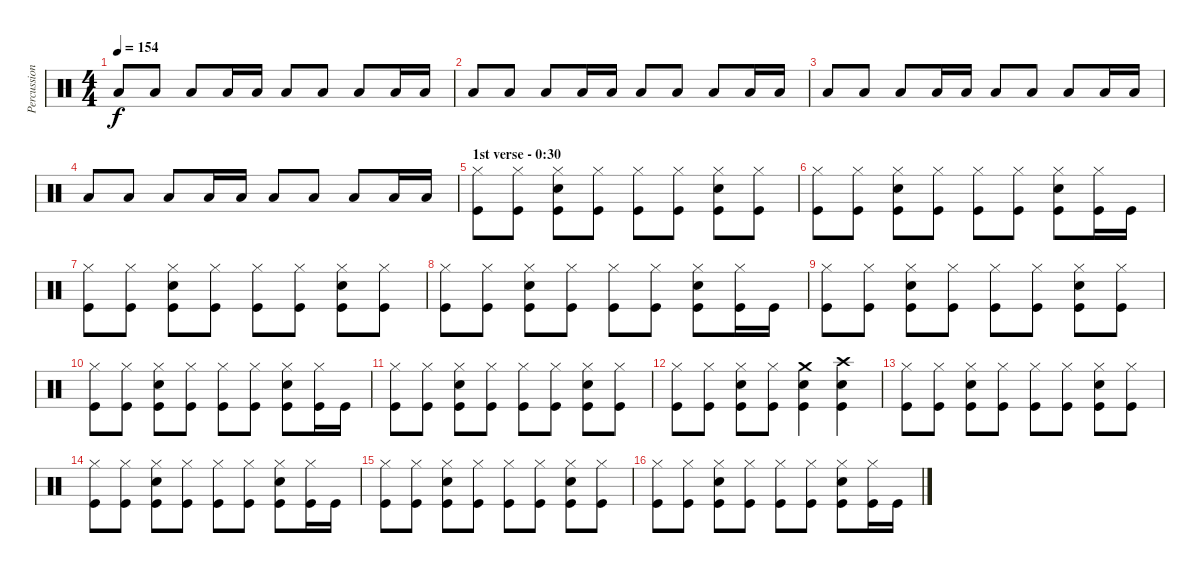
\track ("Percussioni" "Percussion") {instrument percussion}
\staff {score}
\articulation defaults
\ts (4 4)
\tempo 154
\clef neutral
\ks c "Low Floor Tom (hit)".8{dy f} "Low Floor Tom (hit)".8 "Low Floor Tom (hit)".8 "Low Floor Tom (hit)".16 "Low Floor Tom (hit)".16 "Low Floor Tom (hit)".8 "Low Floor Tom (hit)".8 "Low Floor Tom (hit)".8 "Low Floor Tom (hit)".16 "Low Floor Tom (hit)".16
|
"Low Floor Tom (hit)".8 "Low Floor Tom (hit)".8 "Low Floor Tom (hit)".8 "Low Floor Tom (hit)".16 "Low Floor Tom (hit)".16 "Low Floor Tom (hit)".8 "Low Floor Tom (hit)".8 "Low Floor Tom (hit)".8 "Low Floor Tom (hit)".16 "Low Floor Tom (hit)".16 |
"Low Floor Tom (hit)".8 "Low Floor Tom (hit)".8 "Low Floor Tom (hit)".8 "Low Floor Tom (hit)".16 "Low Floor Tom (hit)".16 "Low Floor Tom (hit)".8 "Low Floor Tom (hit)".8 "Low Floor Tom (hit)".8 "Low Floor Tom (hit)".16 "Low Floor Tom (hit)".16 |
"Low Floor Tom (hit)".8 "Low Floor Tom (hit)".8 "Low Floor Tom (hit)".8 "Low Floor Tom (hit)".16 "Low Floor Tom (hit)".16 "Low Floor Tom (hit)".8 "Low Floor Tom (hit)".8 "Low Floor Tom (hit)".8 "Low Floor Tom (hit)".16 "Low Floor Tom (hit)".16 |
\section ("" "1st verse - 0:30")
("Hi-Hat (closed)" "Kick (hit)").8 ("Hi-Hat (closed)" "Kick (hit)").8 ("Hi-Hat (closed)" "Electric Snare (hit)" "Kick (hit)").8 ("Hi-Hat (closed)" "Kick (hit)").8 ("Hi-Hat (closed)" "Kick (hit)").8 ("Hi-Hat (closed)" "Kick (hit)").8 ("Hi-Hat (closed)" "Electric Snare (hit)" "Kick (hit)").8 ("Hi-Hat (closed)" "Kick (hit)").8 |
("Hi-Hat (closed)" "Kick (hit)").8 ("Hi-Hat (closed)" "Kick (hit)").8 ("Hi-Hat (closed)" "Electric Snare (hit)" "Kick (hit)").8 ("Hi-Hat (closed)" "Kick (hit)").8 ("Hi-Hat (closed)" "Kick (hit)").8 ("Hi-Hat (closed)" "Kick (hit)").8 ("Hi-Hat (closed)" "Electric Snare (hit)" "Kick (hit)").8 ("Hi-Hat (closed)" "Kick (hit)").16 "Kick (hit)".16 |
("Hi-Hat (closed)" "Kick (hit)").8 ("Hi-Hat (closed)" "Kick (hit)").8 ("Hi-Hat (closed)" "Electric Snare (hit)" "Kick (hit)").8 ("Hi-Hat (closed)" "Kick (hit)").8 ("Hi-Hat (closed)" "Kick (hit)").8 ("Hi-Hat (closed)" "Kick (hit)").8 ("Hi-Hat (closed)" "Electric Snare (hit)" "Kick (hit)").8 ("Hi-Hat (closed)" "Kick (hit)").8 |
("Hi-Hat (closed)" "Kick (hit)").8 ("Hi-Hat (closed)" "Kick (hit)").8 ("Hi-Hat (closed)" "Electric Snare (hit)" "Kick (hit)").8 ("Hi-Hat (closed)" "Kick (hit)").8 ("Hi-Hat (closed)" "Kick (hit)").8 ("Hi-Hat (closed)" "Kick (hit)").8 ("Hi-Hat (closed)" "Electric Snare (hit)" "Kick (hit)").8 ("Hi-Hat (closed)" "Kick (hit)").16 "Kick (hit)".16 |
("Hi-Hat (closed)" "Kick (hit)").8 ("Hi-Hat (closed)" "Kick (hit)").8 ("Hi-Hat (closed)" "Electric Snare (hit)" "Kick (hit)").8 ("Hi-Hat (closed)" "Kick (hit)").8 ("Hi-Hat (closed)" "Kick (hit)").8 ("Hi-Hat (closed)" "Kick (hit)").8 ("Hi-Hat (closed)" "Electric Snare (hit)" "Kick (hit)").8 ("Hi-Hat (closed)" "Kick (hit)").8 |
("Hi-Hat (closed)" "Kick (hit)").8 ("Hi-Hat (closed)" "Kick (hit)").8 ("Hi-Hat (closed)" "Electric Snare (hit)" "Kick (hit)").8 ("Hi-Hat (closed)" "Kick (hit)").8 ("Hi-Hat (closed)" "Kick (hit)").8 ("Hi-Hat (closed)" "Kick (hit)").8 ("Hi-Hat (closed)" "Electric Snare (hit)" "Kick (hit)").8 ("Hi-Hat (closed)" "Kick (hit)").16 "Kick (hit)".16 |
("Hi-Hat (closed)" "Kick (hit)").8 ("Hi-Hat (closed)" "Kick (hit)").8 ("Hi-Hat (closed)" "Electric Snare (hit)" "Kick (hit)").8 ("Hi-Hat (closed)" "Kick (hit)").8 ("Hi-Hat (closed)" "Kick (hit)").8 ("Hi-Hat (closed)" "Kick (hit)").8 ("Hi-Hat (closed)" "Electric Snare (hit)" "Kick (hit)").8 ("Hi-Hat (closed)" "Kick (hit)").8 |
("Hi-Hat (closed)" "Kick (hit)").8 ("Hi-Hat (closed)" "Kick (hit)").8 ("Hi-Hat (closed)" "Electric Snare (hit)" "Kick (hit)").8 ("Hi-Hat (closed)" "Kick (hit)").8 ("Crash medium (hit)" "Electric Snare (hit)" "Kick (hit)").4 ("Crash high (hit)" "Electric Snare (hit)" "Kick (hit)").4 |
("Hi-Hat (closed)" "Kick (hit)").8 ("Hi-Hat (closed)" "Kick (hit)").8 ("Hi-Hat (closed)" "Electric Snare (hit)" "Kick (hit)").8 ("Hi-Hat (closed)" "Kick (hit)").8 ("Hi-Hat (closed)" "Kick (hit)").8 ("Hi-Hat (closed)" "Kick (hit)").8 ("Hi-Hat (closed)" "Electric Snare (hit)" "Kick (hit)").8 ("Hi-Hat (closed)" "Kick (hit)").8 |
("Hi-Hat (closed)" "Kick (hit)").8 ("Hi-Hat (closed)" "Kick (hit)").8 ("Hi-Hat (closed)" "Electric Snare (hit)" "Kick (hit)").8 ("Hi-Hat (closed)" "Kick (hit)").8 ("Hi-Hat (closed)" "Kick (hit)").8 ("Hi-Hat (closed)" "Kick (hit)").8 ("Hi-Hat (closed)" "Electric Snare (hit)" "Kick (hit)").8 ("Hi-Hat (closed)" "Kick (hit)").16 "Kick (hit)".16 |
("Hi-Hat (closed)" "Kick (hit)").8 ("Hi-Hat (closed)" "Kick (hit)").8 ("Hi-Hat (closed)" "Electric Snare (hit)" "Kick (hit)").8 ("Hi-Hat (closed)" "Kick (hit)").8 ("Hi-Hat (closed)" "Kick (hit)").8 ("Hi-Hat (closed)" "Kick (hit)").8 ("Hi-Hat (closed)" "Electric Snare (hit)" "Kick (hit)").8 ("Hi-Hat (closed)" "Kick (hit)").8 |
("Hi-Hat (closed)" "Kick (hit)").8 ("Hi-Hat (closed)" "Kick (hit)").8 ("Hi-Hat (closed)" "Electric Snare (hit)" "Kick (hit)").8 ("Hi-Hat (closed)" "Kick (hit)").8 ("Hi-Hat (closed)" "Kick (hit)").8 ("Hi-Hat (closed)" "Kick (hit)").8 ("Hi-Hat (closed)" "Electric Snare (hit)" "Kick (hit)").8 ("Hi-Hat (closed)" "Kick (hit)").16 "Kick (hit)".16
